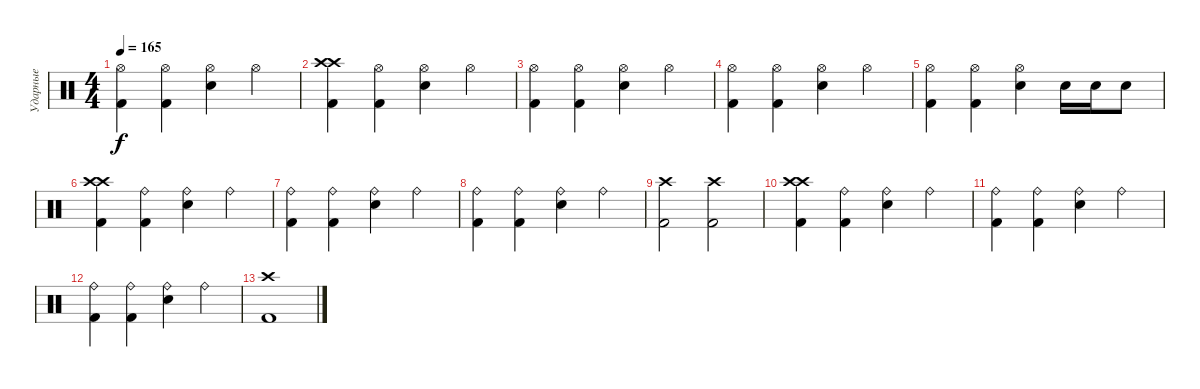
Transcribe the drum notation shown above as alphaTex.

\track ("Ударные" "Ударные") {instrument percussion}
\staff {score}
\articulation defaults
\ts (4 4)
\tempo 165
\clef neutral
\ks c
("Hi-Hat (open)" "Kick (hit) 2").4{dy f} ("Hi-Hat (open)" "Kick (hit) 2").4 ("Hi-Hat (open)" "Snare (hit) 2").4 "Hi-Hat (open)".4 |
("Crash high (hit)" "Crash high (hit)" "Kick (hit) 2").4 ("Hi-Hat (open)" "Kick (hit) 2").4 ("Hi-Hat (open)" "Snare (hit) 2").4 "Hi-Hat (open)".4 |
("Hi-Hat (open)" "Kick (hit) 2").4 ("Hi-Hat (open)" "Kick (hit) 2").4 ("Hi-Hat (open)" "Snare (hit) 2").4 "Hi-Hat (open)".4 |
("Hi-Hat (open)" "Kick (hit) 2").4 ("Hi-Hat (open)" "Kick (hit) 2").4 ("Hi-Hat (open)" "Snare (hit) 2").4 "Hi-Hat (open)".4 |
("Hi-Hat (open)" "Kick (hit) 2").4 ("Hi-Hat (open)" "Kick (hit) 2").4 ("Hi-Hat (open)" "Snare (hit) 2").4 "Snare (hit) 2".16 "Snare (hit) 2".16 "Snare (hit) 2".8 |
("Crash high (hit)" "Crash high (hit)" "Kick (hit) 2").4 ("Ride (bell)" "Kick (hit) 2").4 ("Ride (bell)" "Snare (hit) 2").4 "Ride (bell)".4 |
("Ride (bell)" "Kick (hit) 2").4 ("Ride (bell)" "Kick (hit) 2").4 ("Ride (bell)" "Snare (hit) 2").4 "Ride (bell)".4 |
("Ride (bell)" "Kick (hit) 2").4 ("Ride (bell)" "Kick (hit) 2").4 ("Ride (bell)" "Snare (hit) 2").4 "Ride (bell)".4 |
("Crash high (hit)" "Kick (hit) 2").2 ("Crash high (hit)" "Kick (hit) 2").2 |
("Crash high (hit)" "Crash high (hit)" "Kick (hit) 2").4 ("Ride (bell)" "Kick (hit) 2").4 ("Ride (bell)" "Snare (hit) 2").4 "Ride (bell)".4 |
("Ride (bell)" "Kick (hit) 2").4 ("Ride (bell)" "Kick (hit) 2").4 ("Ride (bell)" "Snare (hit) 2").4 "Ride (bell)".4 |
("Ride (bell)" "Kick (hit) 2").4 ("Ride (bell)" "Kick (hit) 2").4 ("Ride (bell)" "Snare (hit) 2").4 "Ride (bell)".4 |
("Crash high (hit)" "Kick (hit) 2").1
